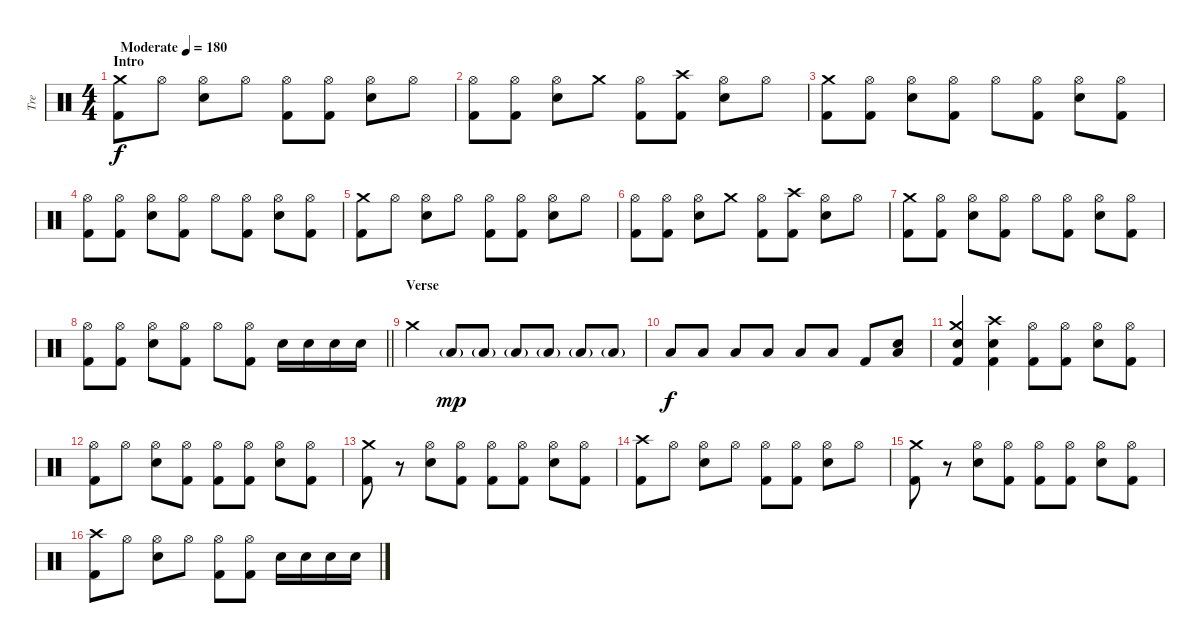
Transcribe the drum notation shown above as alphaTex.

\track ("Tre" "Tre") {instrument percussion}
\staff {score}
\articulation defaults
\ts (4 4)
\section ("" "Intro")
\tempo (180 "Moderate")
\clef neutral
\ks c
("Kick (hit) 2" "Crash medium (hit)").8{dy f} "Hi-Hat (open)".8 ("Snare (hit) 2" "Hi-Hat (open)").8 "Hi-Hat (open)".8 ("Kick (hit) 2" "Hi-Hat (open)").8 ("Kick (hit) 2" "Hi-Hat (open)").8 ("Snare (hit) 2" "Hi-Hat (open)").8 "Hi-Hat (open)".8 |
("Kick (hit) 2" "Hi-Hat (open)").8 ("Kick (hit) 2" "Hi-Hat (open)").8 ("Snare (hit) 2" "Hi-Hat (open)").8 "Crash medium (hit)".8 ("Kick (hit) 2" "Hi-Hat (open)").8 ("Kick (hit) 2" "Crash high (hit)").8 ("Snare (hit) 2" "Hi-Hat (open)").8 "Hi-Hat (open)".8 |
("Kick (hit) 2" "Crash medium (hit)").8 ("Kick (hit) 2" "Hi-Hat (open)").8 ("Snare (hit) 2" "Hi-Hat (open)").8 ("Kick (hit) 2" "Hi-Hat (open)").8 "Hi-Hat (open)".8 ("Kick (hit) 2" "Hi-Hat (open)").8 ("Snare (hit) 2" "Hi-Hat (open)").8 ("Kick (hit) 2" "Hi-Hat (open)").8 |
("Kick (hit) 2" "Hi-Hat (open)").8 ("Kick (hit) 2" "Hi-Hat (open)").8 ("Snare (hit) 2" "Hi-Hat (open)").8 ("Kick (hit) 2" "Hi-Hat (open)").8 "Hi-Hat (open)".8 ("Kick (hit) 2" "Hi-Hat (open)").8 ("Snare (hit) 2" "Hi-Hat (open)").8 ("Kick (hit) 2" "Hi-Hat (open)").8 |
("Kick (hit) 2" "Crash medium (hit)").8 "Hi-Hat (open)".8 ("Snare (hit) 2" "Hi-Hat (open)").8 "Hi-Hat (open)".8 ("Kick (hit) 2" "Hi-Hat (open)").8 ("Kick (hit) 2" "Hi-Hat (open)").8 ("Snare (hit) 2" "Hi-Hat (open)").8 "Hi-Hat (open)".8 |
("Kick (hit) 2" "Hi-Hat (open)").8 ("Kick (hit) 2" "Hi-Hat (open)").8 ("Snare (hit) 2" "Hi-Hat (open)").8 "Crash medium (hit)".8 ("Kick (hit) 2" "Hi-Hat (open)").8 ("Kick (hit) 2" "Crash high (hit)").8 ("Snare (hit) 2" "Hi-Hat (open)").8 "Hi-Hat (open)".8 |
("Kick (hit) 2" "Crash medium (hit)").8 ("Kick (hit) 2" "Hi-Hat (open)").8 ("Snare (hit) 2" "Hi-Hat (open)").8 ("Kick (hit) 2" "Hi-Hat (open)").8 "Hi-Hat (open)".8 ("Kick (hit) 2" "Hi-Hat (open)").8 ("Snare (hit) 2" "Hi-Hat (open)").8 ("Kick (hit) 2" "Hi-Hat (open)").8 |
\barLineRight lightlight
("Kick (hit) 2" "Hi-Hat (open)").8 ("Kick (hit) 2" "Hi-Hat (open)").8 ("Snare (hit) 2" "Hi-Hat (open)").8 ("Kick (hit) 2" "Hi-Hat (open)").8 "Hi-Hat (open)".8 ("Kick (hit) 2" "Hi-Hat (open)").8 "Snare (hit) 2".16 "Snare (hit) 2".16 "Snare (hit) 2".16 "Snare (hit) 2".16 |
\section ("" "Verse")
"Crash medium (hit)".4 "Low Floor Tom (hit)"{g}.8{dy mp} "Low Floor Tom (hit)"{g}.8 "Low Floor Tom (hit)"{g}.8 "Low Floor Tom (hit)"{g}.8 "Low Floor Tom (hit)"{g}.8 "Low Floor Tom (hit)"{g}.8 |
"Low Floor Tom (hit)".8{dy f} "Low Floor Tom (hit)".8 "Low Floor Tom (hit)".8 "Low Floor Tom (hit)".8 "Low Floor Tom (hit)".8 "Low Floor Tom (hit)".8 "Kick (hit) 2".8 ("Low Floor Tom (hit)" "Snare (hit) 2").8 |
("Kick (hit) 2" "Snare (hit) 2" "Crash medium (hit)").4 ("Kick (hit) 2" "Snare (hit) 2" "Crash high (hit)").4 ("Kick (hit) 2" "Hi-Hat (open)").8 ("Kick (hit) 2" "Hi-Hat (open)").8 ("Snare (hit) 2" "Hi-Hat (open)").8 ("Kick (hit) 2" "Hi-Hat (open)").8 |
("Kick (hit) 2" "Hi-Hat (open)").8 "Hi-Hat (open)".8 ("Snare (hit) 2" "Hi-Hat (open)").8 ("Kick (hit) 2" "Hi-Hat (open)").8 ("Kick (hit) 2" "Hi-Hat (open)").8 ("Kick (hit) 2" "Hi-Hat (open)").8 ("Snare (hit) 2" "Hi-Hat (open)").8 ("Kick (hit) 2" "Hi-Hat (open)").8 |
("Kick (hit) 2" "Crash medium (hit)").8 r.8 ("Snare (hit) 2" "Hi-Hat (open)").8 ("Kick (hit) 2" "Hi-Hat (open)").8 ("Kick (hit) 2" "Hi-Hat (open)").8 ("Kick (hit) 2" "Hi-Hat (open)").8 ("Snare (hit) 2" "Hi-Hat (open)").8 ("Kick (hit) 2" "Hi-Hat (open)").8 |
("Kick (hit) 2" "Crash high (hit)").8 "Hi-Hat (open)".8 ("Snare (hit) 2" "Hi-Hat (open)").8 "Hi-Hat (open)".8 ("Kick (hit) 2" "Hi-Hat (open)").8 ("Kick (hit) 2" "Hi-Hat (open)").8 ("Snare (hit) 2" "Hi-Hat (open)").8 "Hi-Hat (open)".8 |
("Kick (hit) 2" "Crash medium (hit)").8 r.8 ("Snare (hit) 2" "Hi-Hat (open)").8 ("Kick (hit) 2" "Hi-Hat (open)").8 ("Kick (hit) 2" "Hi-Hat (open)").8 ("Kick (hit) 2" "Hi-Hat (open)").8 ("Snare (hit) 2" "Hi-Hat (open)").8 ("Kick (hit) 2" "Hi-Hat (open)").8 |
("Kick (hit) 2" "Crash high (hit)").8 "Hi-Hat (open)".8 ("Snare (hit) 2" "Hi-Hat (open)").8 "Hi-Hat (open)".8 ("Kick (hit) 2" "Hi-Hat (open)").8 ("Kick (hit) 2" "Hi-Hat (open)").8 "Snare (hit) 2".16 "Snare (hit) 2".16 "Snare (hit) 2".16 "Snare (hit) 2".16
